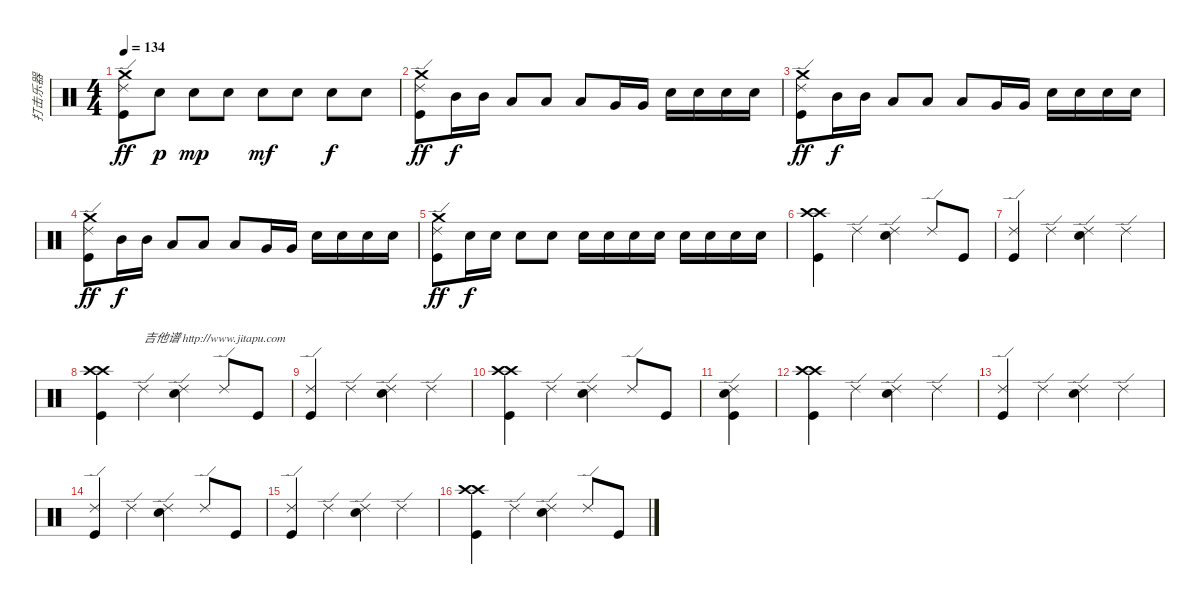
\track ("打击乐器" "打击乐器") {instrument percussion}
\staff {score}
\articulation defaults
\ts (4 4)
\tempo 134
\clef neutral
\ks c
("Crash medium (hit)" "Ride (edge) 2" "Kick (hit)").8{dy ff} "Electric Snare (hit)".8{dy p} "Electric Snare (hit)".8{dy mp} "Electric Snare (hit)".8 "Electric Snare (hit)".8{dy mf} "Electric Snare (hit)".8 "Electric Snare (hit)".8{dy f} "Electric Snare (hit)".8 |
("Crash medium (hit)" "Ride (edge) 2" "Kick (hit)").8{dy ff} "Mid Tom (hit)".16{dy f} "Mid Tom (hit)".16 "Low Tom (hit)".8 "Low Tom (hit)".8 "Low Tom (hit)".8 "Very Low Tom (hit)".16 "Very Low Tom (hit)".16 "Electric Snare (hit)".16 "Electric Snare (hit)".16 "Electric Snare (hit)".16 "Electric Snare (hit)".16 |
("Crash medium (hit)" "Ride (edge) 2" "Kick (hit)").8{dy ff} "Mid Tom (hit)".16{dy f} "Mid Tom (hit)".16 "Low Tom (hit)".8 "Low Tom (hit)".8 "Low Tom (hit)".8 "Very Low Tom (hit)".16 "Very Low Tom (hit)".16 "Electric Snare (hit)".16 "Electric Snare (hit)".16 "Electric Snare (hit)".16 "Electric Snare (hit)".16 |
("Crash medium (hit)" "Ride (edge) 2" "Kick (hit)").8{dy ff} "Mid Tom (hit)".16{dy f} "Mid Tom (hit)".16 "Low Tom (hit)".8 "Low Tom (hit)".8 "Low Tom (hit)".8 "Very Low Tom (hit)".16 "Very Low Tom (hit)".16 "Electric Snare (hit)".16 "Electric Snare (hit)".16 "Electric Snare (hit)".16 "Electric Snare (hit)".16 |
("Crash medium (hit)" "Ride (edge) 2" "Kick (hit)").8{dy ff} "Electric Snare (hit)".16{dy f} "Electric Snare (hit)".16 "Electric Snare (hit)".8 "Electric Snare (hit)".8 "Electric Snare (hit)".16 "Electric Snare (hit)".16 "Electric Snare (hit)".16 "Electric Snare (hit)".16 "Electric Snare (hit)".16 "Electric Snare (hit)".16 "Electric Snare (hit)".16 "Electric Snare (hit)".16 |
("Crash high (hit)" "Crash high (hit)" "Kick (hit)").4 "Ride (edge) 2".4 ("Ride (edge) 2" "Electric Snare (hit)").4 "Ride (edge) 2".8 "Kick (hit)".8 |
("Ride (edge) 2" "Kick (hit)").4 "Ride (edge) 2".4 ("Ride (edge) 2" "Electric Snare (hit)").4 "Ride (edge) 2".4 |
("Crash high (hit)" "Crash high (hit)" "Kick (hit)").4 "Ride (edge) 2".4{txt "吉他谱 http://www.jitapu.com"} ("Ride (edge) 2" "Electric Snare (hit)").4 "Ride (edge) 2".8 "Kick (hit)".8 |
("Ride (edge) 2" "Kick (hit)").4 "Ride (edge) 2".4 ("Ride (edge) 2" "Electric Snare (hit)").4 "Ride (edge) 2".4 |
("Crash high (hit)" "Crash high (hit)" "Kick (hit)").4 "Ride (edge) 2".4 ("Ride (edge) 2" "Electric Snare (hit)").4 "Ride (edge) 2".8 "Kick (hit)".8 |
("Ride (edge) 2" "Electric Snare (hit)" "Kick (hit)").4 |
("Crash high (hit)" "Crash high (hit)" "Kick (hit)").4 "Ride (edge) 2".4 ("Ride (edge) 2" "Electric Snare (hit)").4 "Ride (edge) 2".4 |
("Ride (edge) 2" "Kick (hit)").4 "Ride (edge) 2".4 ("Ride (edge) 2" "Electric Snare (hit)").4 "Ride (edge) 2".4 |
("Ride (edge) 2" "Kick (hit)").4 "Ride (edge) 2".4 ("Ride (edge) 2" "Electric Snare (hit)").4 "Ride (edge) 2".8 "Kick (hit)".8 |
("Ride (edge) 2" "Kick (hit)").4 "Ride (edge) 2".4 ("Ride (edge) 2" "Electric Snare (hit)").4 "Ride (edge) 2".4 |
("Crash high (hit)" "Crash high (hit)" "Kick (hit)").4 "Ride (edge) 2".4 ("Ride (edge) 2" "Electric Snare (hit)").4 "Ride (edge) 2".8 "Kick (hit)".8
